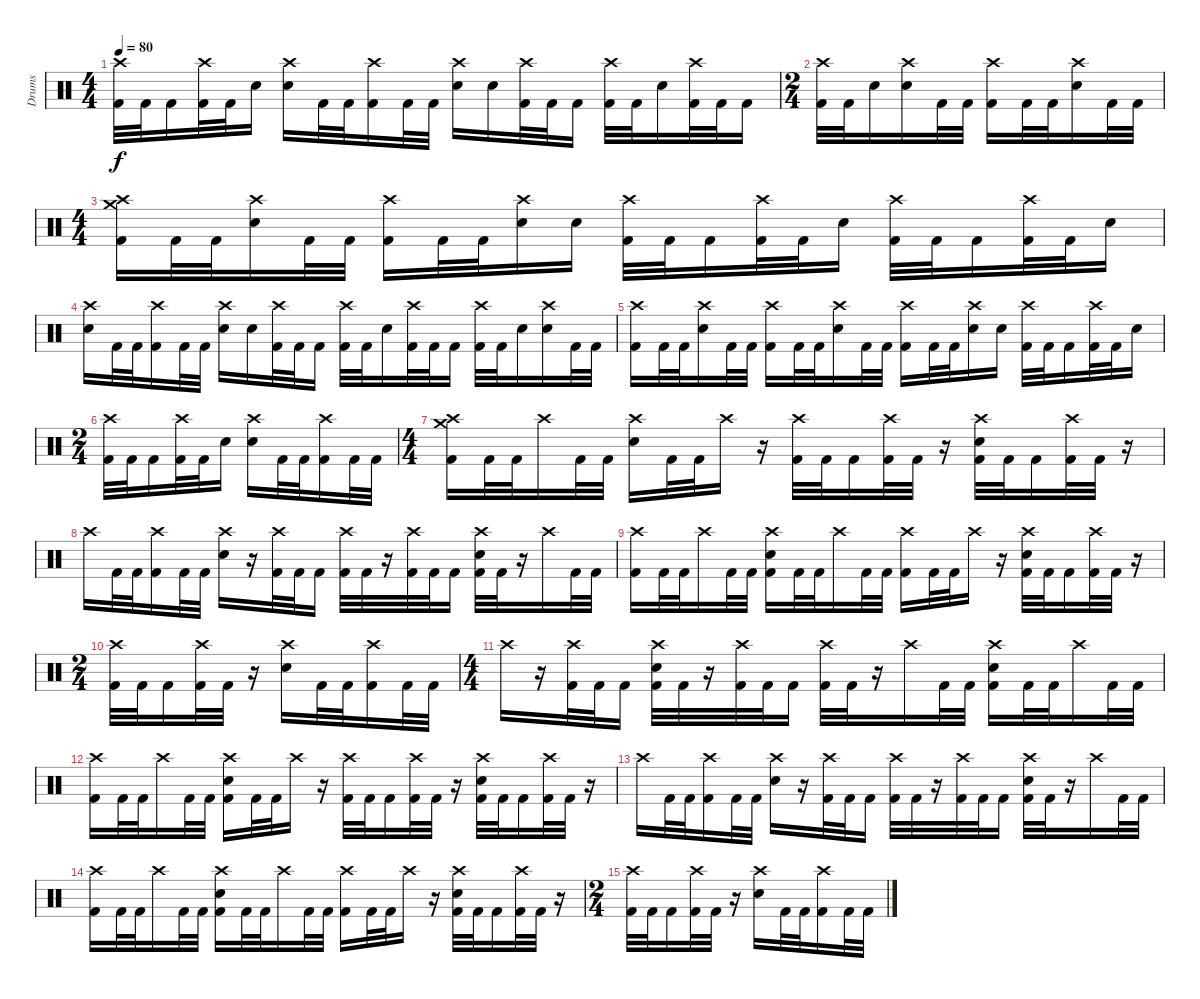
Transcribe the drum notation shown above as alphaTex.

\track ("Drums" "Drums") {instrument percussion}
\staff {score}
\articulation defaults
\ts (4 4)
\tempo 80
\clef neutral
\ks c
("Crash high (hit)" "Kick (hit) 2").32{dy f} "Kick (hit) 2".32 "Kick (hit) 2".16 ("Crash high (hit)" "Kick (hit) 2").32 "Kick (hit) 2".32 "Snare (hit) 2".16 ("Crash high (hit)" "Snare (hit) 2").16 "Kick (hit) 2".32 "Kick (hit) 2".32 ("Crash high (hit)" "Kick (hit) 2").16 "Kick (hit) 2".32 "Kick (hit) 2".32 ("Crash high (hit)" "Snare (hit) 2").16 "Snare (hit) 2".16 ("Crash high (hit)" "Kick (hit) 2").32 "Kick (hit) 2".32 "Kick (hit) 2".16 ("Crash high (hit)" "Kick (hit) 2").32 "Kick (hit) 2".32 "Snare (hit) 2".16 ("Crash high (hit)" "Kick (hit) 2").32 "Kick (hit) 2".32 "Kick (hit) 2".16 |
\ts (2 4)
("Crash high (hit)" "Kick (hit) 2").32 "Kick (hit) 2".32 "Snare (hit) 2".16 ("Crash high (hit)" "Snare (hit) 2").16 "Kick (hit) 2".32 "Kick (hit) 2".32 ("Crash high (hit)" "Kick (hit) 2").16 "Kick (hit) 2".32 "Kick (hit) 2".32 ("Crash high (hit)" "Snare (hit) 2").16 "Kick (hit) 2".32 "Kick (hit) 2".32 |
\ts (4 4)
("Crash medium (hit)" "Crash high (hit)" "Kick (hit) 2").16 "Kick (hit) 2".32 "Kick (hit) 2".32 ("Crash high (hit)" "Snare (hit) 2").16 "Kick (hit) 2".32 "Kick (hit) 2".32 ("Crash high (hit)" "Kick (hit) 2").16 "Kick (hit) 2".32 "Kick (hit) 2".32 ("Crash high (hit)" "Snare (hit) 2").16 "Snare (hit) 2".16 ("Crash high (hit)" "Kick (hit) 2").32 "Kick (hit) 2".32 "Kick (hit) 2".16 ("Crash high (hit)" "Kick (hit) 2").32 "Kick (hit) 2".32 "Snare (hit) 2".16 ("Crash high (hit)" "Kick (hit) 2").32 "Kick (hit) 2".32 "Kick (hit) 2".16 ("Crash high (hit)" "Kick (hit) 2").32 "Kick (hit) 2".32 "Snare (hit) 2".16 |
("Crash high (hit)" "Snare (hit) 2").16 "Kick (hit) 2".32 "Kick (hit) 2".32 ("Crash high (hit)" "Kick (hit) 2").16 "Kick (hit) 2".32 "Kick (hit) 2".32 ("Crash high (hit)" "Snare (hit) 2").16 "Snare (hit) 2".16 ("Crash high (hit)" "Kick (hit) 2").32 "Kick (hit) 2".32 "Kick (hit) 2".16 ("Crash high (hit)" "Kick (hit) 2").32 "Kick (hit) 2".32 "Snare (hit) 2".16 ("Crash high (hit)" "Kick (hit) 2").32 "Kick (hit) 2".32 "Kick (hit) 2".16 ("Crash high (hit)" "Kick (hit) 2").32 "Kick (hit) 2".32 "Snare (hit) 2".16 ("Crash high (hit)" "Snare (hit) 2").16 "Kick (hit) 2".32 "Kick (hit) 2".32 |
("Crash high (hit)" "Kick (hit) 2").16 "Kick (hit) 2".32 "Kick (hit) 2".32 ("Crash high (hit)" "Snare (hit) 2").16 "Kick (hit) 2".32 "Kick (hit) 2".32 ("Crash high (hit)" "Kick (hit) 2").16 "Kick (hit) 2".32 "Kick (hit) 2".32 ("Crash high (hit)" "Snare (hit) 2").16 "Kick (hit) 2".32 "Kick (hit) 2".32 ("Crash high (hit)" "Kick (hit) 2").16 "Kick (hit) 2".32 "Kick (hit) 2".32 ("Crash high (hit)" "Snare (hit) 2").16 "Snare (hit) 2".16 ("Crash high (hit)" "Kick (hit) 2").32 "Kick (hit) 2".32 "Kick (hit) 2".16 ("Crash high (hit)" "Kick (hit) 2").32 "Kick (hit) 2".32 "Snare (hit) 2".16 |
\ts (2 4)
("Crash high (hit)" "Kick (hit) 2").32 "Kick (hit) 2".32 "Kick (hit) 2".16 ("Crash high (hit)" "Kick (hit) 2").32 "Kick (hit) 2".32 "Snare (hit) 2".16 ("Crash high (hit)" "Snare (hit) 2").16 "Kick (hit) 2".32 "Kick (hit) 2".32 ("Crash high (hit)" "Kick (hit) 2").16 "Kick (hit) 2".32 "Kick (hit) 2".32 |
\ts (4 4)
("Crash medium (hit)" "Crash high (hit)" "Kick (hit) 2").16 "Kick (hit) 2".32 "Kick (hit) 2".32 "Crash high (hit)".16 "Kick (hit) 2".32 "Kick (hit) 2".32 ("Crash high (hit)" "Snare (hit) 2").16 "Kick (hit) 2".32 "Kick (hit) 2".32 "Crash high (hit)".16 r.16 ("Crash high (hit)" "Kick (hit) 2").32 "Kick (hit) 2".32 "Kick (hit) 2".16 ("Crash high (hit)" "Kick (hit) 2").32 "Kick (hit) 2".32 r.16 ("Crash high (hit)" "Snare (hit) 2" "Kick (hit) 2").32 "Kick (hit) 2".32 "Kick (hit) 2".16 ("Crash high (hit)" "Kick (hit) 2").32 "Kick (hit) 2".32 r.16 |
"Crash high (hit)".16 "Kick (hit) 2".32 "Kick (hit) 2".32 ("Crash high (hit)" "Kick (hit) 2").16 "Kick (hit) 2".32 "Kick (hit) 2".32 ("Crash high (hit)" "Snare (hit) 2").16 r.16 ("Crash high (hit)" "Kick (hit) 2").32 "Kick (hit) 2".32 "Kick (hit) 2".16 ("Crash high (hit)" "Kick (hit) 2").32 "Kick (hit) 2".32 r.16 ("Crash high (hit)" "Kick (hit) 2").32 "Kick (hit) 2".32 "Kick (hit) 2".16 ("Crash high (hit)" "Snare (hit) 2" "Kick (hit) 2").32 "Kick (hit) 2".32 r.16 "Crash high (hit)".16 "Kick (hit) 2".32 "Kick (hit) 2".32 |
("Crash high (hit)" "Kick (hit) 2").16 "Kick (hit) 2".32 "Kick (hit) 2".32 "Crash high (hit)".16 "Kick (hit) 2".32 "Kick (hit) 2".32 ("Crash high (hit)" "Snare (hit) 2" "Kick (hit) 2").16 "Kick (hit) 2".32 "Kick (hit) 2".32 "Crash high (hit)".16 "Kick (hit) 2".32 "Kick (hit) 2".32 ("Crash high (hit)" "Kick (hit) 2").16 "Kick (hit) 2".32 "Kick (hit) 2".32 "Crash high (hit)".16 r.16 ("Crash high (hit)" "Snare (hit) 2" "Kick (hit) 2").32 "Kick (hit) 2".32 "Kick (hit) 2".16 ("Crash high (hit)" "Kick (hit) 2").32 "Kick (hit) 2".32 r.16 |
\ts (2 4)
("Crash high (hit)" "Kick (hit) 2").32 "Kick (hit) 2".32 "Kick (hit) 2".16 ("Crash high (hit)" "Kick (hit) 2").32 "Kick (hit) 2".32 r.16 ("Crash high (hit)" "Snare (hit) 2").16 "Kick (hit) 2".32 "Kick (hit) 2".32 ("Crash high (hit)" "Kick (hit) 2").16 "Kick (hit) 2".32 "Kick (hit) 2".32 |
\ts (4 4)
"Crash high (hit)".16 r.16 ("Crash high (hit)" "Kick (hit) 2").32 "Kick (hit) 2".32 "Kick (hit) 2".16 ("Crash high (hit)" "Snare (hit) 2" "Kick (hit) 2").32 "Kick (hit) 2".32 r.16 ("Crash high (hit)" "Kick (hit) 2").32 "Kick (hit) 2".32 "Kick (hit) 2".16 ("Crash high (hit)" "Kick (hit) 2").32 "Kick (hit) 2".32 r.16 "Crash high (hit)".16 "Kick (hit) 2".32 "Kick (hit) 2".32 ("Crash high (hit)" "Snare (hit) 2" "Kick (hit) 2").16 "Kick (hit) 2".32 "Kick (hit) 2".32 "Crash high (hit)".16 "Kick (hit) 2".32 "Kick (hit) 2".32 |
("Crash high (hit)" "Kick (hit) 2").16 "Kick (hit) 2".32 "Kick (hit) 2".32 "Crash high (hit)".16 "Kick (hit) 2".32 "Kick (hit) 2".32 ("Crash high (hit)" "Snare (hit) 2" "Kick (hit) 2").16 "Kick (hit) 2".32 "Kick (hit) 2".32 "Crash high (hit)".16 r.16 ("Crash high (hit)" "Kick (hit) 2").32 "Kick (hit) 2".32 "Kick (hit) 2".16 ("Crash high (hit)" "Kick (hit) 2").32 "Kick (hit) 2".32 r.16 ("Crash high (hit)" "Snare (hit) 2" "Kick (hit) 2").32 "Kick (hit) 2".32 "Kick (hit) 2".16 ("Crash high (hit)" "Kick (hit) 2").32 "Kick (hit) 2".32 r.16 |
"Crash high (hit)".16 "Kick (hit) 2".32 "Kick (hit) 2".32 ("Crash high (hit)" "Kick (hit) 2").16 "Kick (hit) 2".32 "Kick (hit) 2".32 ("Crash high (hit)" "Snare (hit) 2").16 r.16 ("Crash high (hit)" "Kick (hit) 2").32 "Kick (hit) 2".32 "Kick (hit) 2".16 ("Crash high (hit)" "Kick (hit) 2").32 "Kick (hit) 2".32 r.16 ("Crash high (hit)" "Kick (hit) 2").32 "Kick (hit) 2".32 "Kick (hit) 2".16 ("Crash high (hit)" "Snare (hit) 2" "Kick (hit) 2").32 "Kick (hit) 2".32 r.16 "Crash high (hit)".16 "Kick (hit) 2".32 "Kick (hit) 2".32 |
("Crash high (hit)" "Kick (hit) 2").16 "Kick (hit) 2".32 "Kick (hit) 2".32 "Crash high (hit)".16 "Kick (hit) 2".32 "Kick (hit) 2".32 ("Crash high (hit)" "Snare (hit) 2" "Kick (hit) 2").16 "Kick (hit) 2".32 "Kick (hit) 2".32 "Crash high (hit)".16 "Kick (hit) 2".32 "Kick (hit) 2".32 ("Crash high (hit)" "Kick (hit) 2").16 "Kick (hit) 2".32 "Kick (hit) 2".32 "Crash high (hit)".16 r.16 ("Crash high (hit)" "Snare (hit) 2" "Kick (hit) 2").32 "Kick (hit) 2".32 "Kick (hit) 2".16 ("Crash high (hit)" "Kick (hit) 2").32 "Kick (hit) 2".32 r.16 |
\ts (2 4)
("Crash high (hit)" "Kick (hit) 2").32 "Kick (hit) 2".32 "Kick (hit) 2".16 ("Crash high (hit)" "Kick (hit) 2").32 "Kick (hit) 2".32 r.16 ("Crash high (hit)" "Snare (hit) 2").16 "Kick (hit) 2".32 "Kick (hit) 2".32 ("Crash high (hit)" "Kick (hit) 2").16 "Kick (hit) 2".32 "Kick (hit) 2".32
